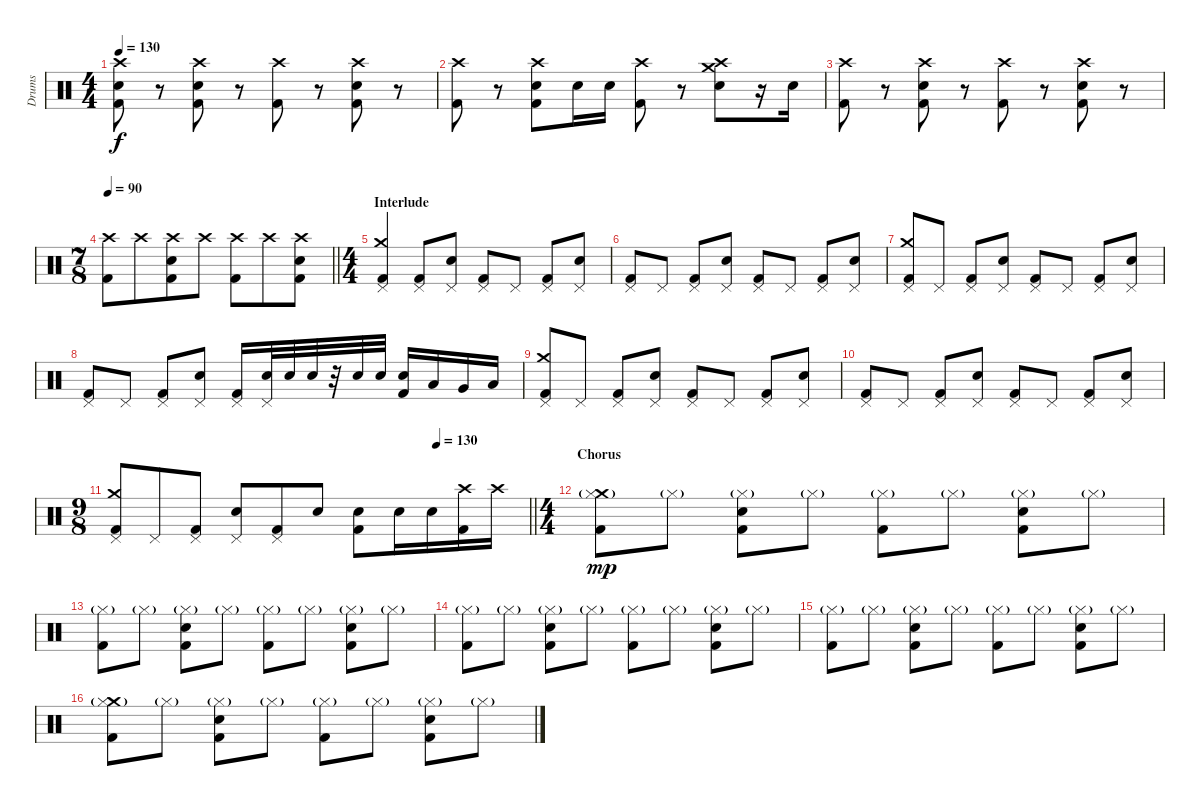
\track ("Drums" "Drums") {instrument percussion}
\staff {score}
\articulation defaults
\ts (4 4)
\tempo 130
\clef neutral
\ks c
("Crash high (hit)" "Electric Snare (hit)" "Kick (hit) 2").8{dy f} r.8 ("Crash high (hit)" "Electric Snare (hit)" "Kick (hit) 2").8 r.8 ("Crash high (hit)" "Kick (hit) 2").8 r.8 ("Crash high (hit)" "Electric Snare (hit)" "Kick (hit) 2").8 r.8 |
("Crash high (hit)" "Kick (hit) 2").8 r.8 ("Crash high (hit)" "Electric Snare (hit)" "Kick (hit) 2").8 "Electric Snare (hit)".16 "Electric Snare (hit)".16 ("Crash high (hit)" "Kick (hit) 2").8 r.8 ("Crash high (hit)" "Electric Snare (hit)" "Crash medium (hit)").8 r.16 "Electric Snare (hit)".16 |
("Crash high (hit)" "Kick (hit) 2").8 r.8 ("Crash high (hit)" "Electric Snare (hit)" "Kick (hit) 2").8 r.8 ("Crash high (hit)" "Kick (hit) 2").8 r.8 ("Crash high (hit)" "Electric Snare (hit)" "Kick (hit) 2").8 r.8 |
\ts (7 8)
\tempo 90
\barLineRight lightlight
("Crash high (hit)" "Kick (hit) 2").8 "Crash high (hit)".8 ("Crash high (hit)" "Electric Snare (hit)" "Kick (hit) 2").8 "Crash high (hit)".8 ("Crash high (hit)" "Kick (hit) 2").8 "Crash high (hit)".8 ("Crash high (hit)" "Electric Snare (hit)" "Kick (hit) 2").8 |
\ts (4 4)
\section ("" "Interlude")
("Crash medium (hit)" "Pedal Hi-Hat (hit)" "Kick (hit) 2").4 ("Pedal Hi-Hat (hit)" "Kick (hit) 2").8 ("Pedal Hi-Hat (hit)" "Electric Snare (hit)").8 ("Pedal Hi-Hat (hit)" "Kick (hit) 2").8 "Pedal Hi-Hat (hit)".8 ("Pedal Hi-Hat (hit)" "Kick (hit) 2").8 ("Pedal Hi-Hat (hit)" "Electric Snare (hit)").8 |
("Pedal Hi-Hat (hit)" "Kick (hit) 2").8 "Pedal Hi-Hat (hit)".8 ("Pedal Hi-Hat (hit)" "Kick (hit) 2").8 ("Pedal Hi-Hat (hit)" "Electric Snare (hit)").8 ("Pedal Hi-Hat (hit)" "Kick (hit) 2").8 "Pedal Hi-Hat (hit)".8 ("Pedal Hi-Hat (hit)" "Kick (hit) 2").8 ("Pedal Hi-Hat (hit)" "Electric Snare (hit)").8 |
("Crash medium (hit)" "Pedal Hi-Hat (hit)" "Kick (hit) 2").8 "Pedal Hi-Hat (hit)".8 ("Pedal Hi-Hat (hit)" "Kick (hit) 2").8 ("Pedal Hi-Hat (hit)" "Electric Snare (hit)").8 ("Pedal Hi-Hat (hit)" "Kick (hit) 2").8 "Pedal Hi-Hat (hit)".8 ("Pedal Hi-Hat (hit)" "Kick (hit) 2").8 ("Pedal Hi-Hat (hit)" "Electric Snare (hit)").8 |
("Pedal Hi-Hat (hit)" "Kick (hit) 2").8 "Pedal Hi-Hat (hit)".8 ("Pedal Hi-Hat (hit)" "Kick (hit) 2").8 ("Pedal Hi-Hat (hit)" "Electric Snare (hit)").8 ("Pedal Hi-Hat (hit)" "Kick (hit) 2").16 ("Pedal Hi-Hat (hit)" "Electric Snare (hit)").32 "Electric Snare (hit)".32 "Electric Snare (hit)".32 r.32 "Electric Snare (hit)".32 "Electric Snare (hit)".32 ("Electric Snare (hit)" "Kick (hit) 2").16 "Low Tom (hit)".16 "Very Low Tom (hit)".16 "Low Floor Tom (hit)".16 |
("Crash medium (hit)" "Pedal Hi-Hat (hit)" "Kick (hit) 2").8 "Pedal Hi-Hat (hit)".8 ("Pedal Hi-Hat (hit)" "Kick (hit) 2").8 ("Pedal Hi-Hat (hit)" "Electric Snare (hit)").8 ("Pedal Hi-Hat (hit)" "Kick (hit) 2").8 "Pedal Hi-Hat (hit)".8 ("Pedal Hi-Hat (hit)" "Kick (hit) 2").8 ("Pedal Hi-Hat (hit)" "Electric Snare (hit)").8 |
("Pedal Hi-Hat (hit)" "Kick (hit) 2").8 "Pedal Hi-Hat (hit)".8 ("Pedal Hi-Hat (hit)" "Kick (hit) 2").8 ("Pedal Hi-Hat (hit)" "Electric Snare (hit)").8 ("Pedal Hi-Hat (hit)" "Kick (hit) 2").8 "Pedal Hi-Hat (hit)".8 ("Pedal Hi-Hat (hit)" "Kick (hit) 2").8 ("Pedal Hi-Hat (hit)" "Electric Snare (hit)").8 |
\ts (9 8)
\tempo (130 0.7777777777777778)
\barLineRight lightlight
("Crash medium (hit)" "Pedal Hi-Hat (hit)" "Kick (hit) 2").8 "Pedal Hi-Hat (hit)".8 ("Pedal Hi-Hat (hit)" "Kick (hit) 2").8 ("Pedal Hi-Hat (hit)" "Electric Snare (hit)").8 ("Pedal Hi-Hat (hit)" "Kick (hit) 2").8 "Electric Snare (hit)".8 ("Electric Snare (hit)" "Kick (hit) 2").8 "Electric Snare (hit)".16 "Electric Snare (hit)".16 ("Crash high (hit)" "Kick (hit) 2").16 "Crash high (hit)".16 |
\ts (4 4)
\section ("" "Chorus")
("Crash medium (hit)" "Hi-Hat (closed)"{g} "Kick (hit) 2").8{dy mp} "Hi-Hat (closed)"{g}.8 ("Hi-Hat (closed)"{g} "Electric Snare (hit)" "Kick (hit) 2").8 "Hi-Hat (closed)"{g}.8 ("Hi-Hat (closed)"{g} "Kick (hit) 2").8 "Hi-Hat (closed)"{g}.8 ("Hi-Hat (closed)"{g} "Electric Snare (hit)" "Kick (hit) 2").8 "Hi-Hat (closed)"{g}.8 |
("Hi-Hat (closed)"{g} "Kick (hit) 2").8 "Hi-Hat (closed)"{g}.8 ("Hi-Hat (closed)"{g} "Electric Snare (hit)" "Kick (hit) 2").8 "Hi-Hat (closed)"{g}.8 ("Hi-Hat (closed)"{g} "Kick (hit) 2").8 "Hi-Hat (closed)"{g}.8 ("Hi-Hat (closed)"{g} "Electric Snare (hit)" "Kick (hit) 2").8 "Hi-Hat (closed)"{g}.8 |
("Hi-Hat (closed)"{g} "Kick (hit) 2").8 "Hi-Hat (closed)"{g}.8 ("Hi-Hat (closed)"{g} "Electric Snare (hit)" "Kick (hit) 2").8 "Hi-Hat (closed)"{g}.8 ("Hi-Hat (closed)"{g} "Kick (hit) 2").8 "Hi-Hat (closed)"{g}.8 ("Hi-Hat (closed)"{g} "Electric Snare (hit)" "Kick (hit) 2").8 "Hi-Hat (closed)"{g}.8 |
("Hi-Hat (closed)"{g} "Kick (hit) 2").8 "Hi-Hat (closed)"{g}.8 ("Hi-Hat (closed)"{g} "Electric Snare (hit)" "Kick (hit) 2").8 "Hi-Hat (closed)"{g}.8 ("Hi-Hat (closed)"{g} "Kick (hit) 2").8 "Hi-Hat (closed)"{g}.8 ("Hi-Hat (closed)"{g} "Electric Snare (hit)" "Kick (hit) 2").8 "Hi-Hat (closed)"{g}.8 |
("Crash medium (hit)" "Hi-Hat (closed)"{g} "Kick (hit) 2").8 "Hi-Hat (closed)"{g}.8 ("Hi-Hat (closed)"{g} "Electric Snare (hit)" "Kick (hit) 2").8 "Hi-Hat (closed)"{g}.8 ("Hi-Hat (closed)"{g} "Kick (hit) 2").8 "Hi-Hat (closed)"{g}.8 ("Hi-Hat (closed)"{g} "Electric Snare (hit)" "Kick (hit) 2").8 "Hi-Hat (closed)"{g}.8
